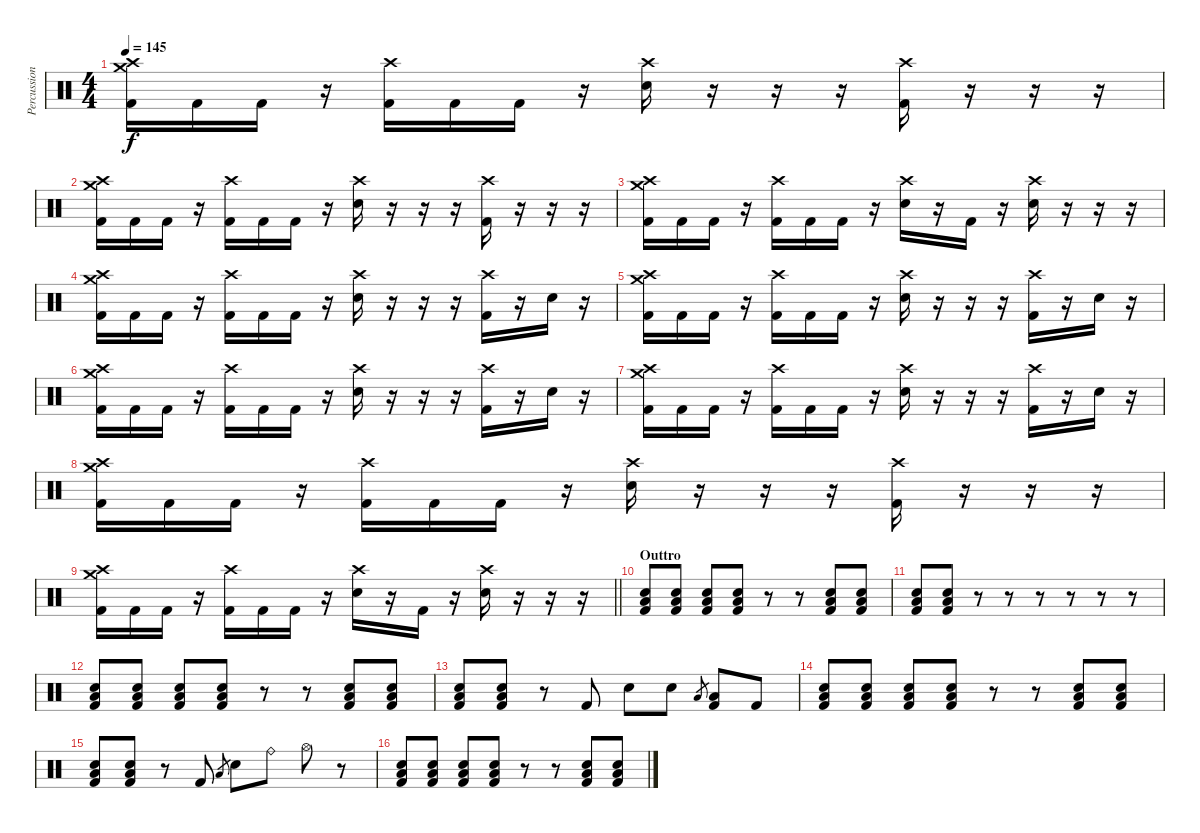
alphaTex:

\track ("Percussion" "Percussion") {instrument percussion}
\staff {score}
\articulation defaults
\ts (4 4)
\tempo 145
\clef neutral
\ks c
("Crash medium (hit)" "Crash high (hit)" "Kick (hit) 2").16{dy f} "Kick (hit) 2".16 "Kick (hit) 2".16 r.16 ("Crash high (hit)" "Kick (hit) 2").16 "Kick (hit) 2".16 "Kick (hit) 2".16 r.16 ("Crash high (hit)" "Electric Snare (hit)").16 r.16 r.16 r.16 ("Crash high (hit)" "Kick (hit) 2").16 r.16 r.16 r.16 |
("Crash medium (hit)" "Crash high (hit)" "Kick (hit) 2").16 "Kick (hit) 2".16 "Kick (hit) 2".16 r.16 ("Crash high (hit)" "Kick (hit) 2").16 "Kick (hit) 2".16 "Kick (hit) 2".16 r.16 ("Crash high (hit)" "Electric Snare (hit)").16 r.16 r.16 r.16 ("Crash high (hit)" "Kick (hit) 2").16 r.16 r.16 r.16 |
("Crash medium (hit)" "Crash high (hit)" "Kick (hit) 2").16 "Kick (hit) 2".16 "Kick (hit) 2".16 r.16 ("Crash high (hit)" "Kick (hit) 2").16 "Kick (hit) 2".16 "Kick (hit) 2".16 r.16 ("Crash high (hit)" "Electric Snare (hit)").16 r.16 "Kick (hit) 2".16 r.16 ("Crash high (hit)" "Electric Snare (hit)").16 r.16 r.16 r.16 |
("Crash medium (hit)" "Crash high (hit)" "Kick (hit) 2").16 "Kick (hit) 2".16 "Kick (hit) 2".16 r.16 ("Crash high (hit)" "Kick (hit) 2").16 "Kick (hit) 2".16 "Kick (hit) 2".16 r.16 ("Crash high (hit)" "Electric Snare (hit)").16 r.16 r.16 r.16 ("Crash high (hit)" "Kick (hit) 2").16 r.16 "Electric Snare (hit)".16 r.16 |
("Crash medium (hit)" "Crash high (hit)" "Kick (hit) 2").16 "Kick (hit) 2".16 "Kick (hit) 2".16 r.16 ("Crash high (hit)" "Kick (hit) 2").16 "Kick (hit) 2".16 "Kick (hit) 2".16 r.16 ("Crash high (hit)" "Electric Snare (hit)").16 r.16 r.16 r.16 ("Crash high (hit)" "Kick (hit) 2").16 r.16 "Electric Snare (hit)".16 r.16 |
("Crash medium (hit)" "Crash high (hit)" "Kick (hit) 2").16 "Kick (hit) 2".16 "Kick (hit) 2".16 r.16 ("Crash high (hit)" "Kick (hit) 2").16 "Kick (hit) 2".16 "Kick (hit) 2".16 r.16 ("Crash high (hit)" "Electric Snare (hit)").16 r.16 r.16 r.16 ("Crash high (hit)" "Kick (hit) 2").16 r.16 "Electric Snare (hit)".16 r.16 |
("Crash medium (hit)" "Crash high (hit)" "Kick (hit) 2").16 "Kick (hit) 2".16 "Kick (hit) 2".16 r.16 ("Crash high (hit)" "Kick (hit) 2").16 "Kick (hit) 2".16 "Kick (hit) 2".16 r.16 ("Crash high (hit)" "Electric Snare (hit)").16 r.16 r.16 r.16 ("Crash high (hit)" "Kick (hit) 2").16 r.16 "Electric Snare (hit)".16 r.16 |
("Crash medium (hit)" "Crash high (hit)" "Kick (hit) 2").16 "Kick (hit) 2".16 "Kick (hit) 2".16 r.16 ("Crash high (hit)" "Kick (hit) 2").16 "Kick (hit) 2".16 "Kick (hit) 2".16 r.16 ("Crash high (hit)" "Electric Snare (hit)").16 r.16 r.16 r.16 ("Crash high (hit)" "Kick (hit) 2").16 r.16 r.16 r.16 |
\barLineRight lightlight
("Crash medium (hit)" "Crash high (hit)" "Kick (hit) 2").16 "Kick (hit) 2".16 "Kick (hit) 2".16 r.16 ("Crash high (hit)" "Kick (hit) 2").16 "Kick (hit) 2".16 "Kick (hit) 2".16 r.16 ("Crash high (hit)" "Electric Snare (hit)").16 r.16 "Kick (hit) 2".16 r.16 ("Crash high (hit)" "Electric Snare (hit)").16 r.16 r.16 r.16 |
\section ("" "Outtro")
("Electric Snare (hit)" "Low Floor Tom (hit)" "Kick (hit) 2").8 ("Electric Snare (hit)" "Low Floor Tom (hit)" "Kick (hit) 2").8 ("Electric Snare (hit)" "Low Floor Tom (hit)" "Kick (hit) 2").8 ("Electric Snare (hit)" "Low Floor Tom (hit)" "Kick (hit) 2").8 r.8 r.8 ("Electric Snare (hit)" "Low Floor Tom (hit)" "Kick (hit) 2").8 ("Electric Snare (hit)" "Low Floor Tom (hit)" "Kick (hit) 2").8 |
("Electric Snare (hit)" "Low Floor Tom (hit)" "Kick (hit) 2").8 ("Electric Snare (hit)" "Low Floor Tom (hit)" "Kick (hit) 2").8 r.8 r.8 r.8 r.8 r.8 r.8 |
("Electric Snare (hit)" "Low Floor Tom (hit)" "Kick (hit) 2").8 ("Electric Snare (hit)" "Low Floor Tom (hit)" "Kick (hit) 2").8 ("Electric Snare (hit)" "Low Floor Tom (hit)" "Kick (hit) 2").8 ("Electric Snare (hit)" "Low Floor Tom (hit)" "Kick (hit) 2").8 r.8 r.8 ("Electric Snare (hit)" "Low Floor Tom (hit)" "Kick (hit) 2").8 ("Electric Snare (hit)" "Low Floor Tom (hit)" "Kick (hit) 2").8 |
("Electric Snare (hit)" "Low Floor Tom (hit)" "Kick (hit) 2").8 ("Electric Snare (hit)" "Low Floor Tom (hit)" "Kick (hit) 2").8 r.8 "Kick (hit) 2".8 "Electric Snare (hit)".8 "Electric Snare (hit)".8 "Low Floor Tom (hit)".8{gr} ("Low Floor Tom (hit)" "Kick (hit) 2").8 "Kick (hit) 2".8 |
("Electric Snare (hit)" "Low Floor Tom (hit)" "Kick (hit) 2").8 ("Electric Snare (hit)" "Low Floor Tom (hit)" "Kick (hit) 2").8 ("Electric Snare (hit)" "Low Floor Tom (hit)" "Kick (hit) 2").8 ("Electric Snare (hit)" "Low Floor Tom (hit)" "Kick (hit) 2").8 r.8 r.8 ("Electric Snare (hit)" "Low Floor Tom (hit)" "Kick (hit) 2").8 ("Electric Snare (hit)" "Low Floor Tom (hit)" "Kick (hit) 2").8 |
("Electric Snare (hit)" "Low Floor Tom (hit)" "Kick (hit) 2").8 ("Electric Snare (hit)" "Low Floor Tom (hit)" "Kick (hit) 2").8 r.8 "Kick (hit) 2".8 "Low Floor Tom (hit)".8{gr} "Electric Snare (hit)".8 "Ride (bell)".8 "Hi-Hat (open)".8 r.8 |
("Electric Snare (hit)" "Low Floor Tom (hit)" "Kick (hit) 2").8 ("Electric Snare (hit)" "Low Floor Tom (hit)" "Kick (hit) 2").8 ("Electric Snare (hit)" "Low Floor Tom (hit)" "Kick (hit) 2").8 ("Electric Snare (hit)" "Low Floor Tom (hit)" "Kick (hit) 2").8 r.8 r.8 ("Electric Snare (hit)" "Low Floor Tom (hit)" "Kick (hit) 2").8 ("Electric Snare (hit)" "Low Floor Tom (hit)" "Kick (hit) 2").8
